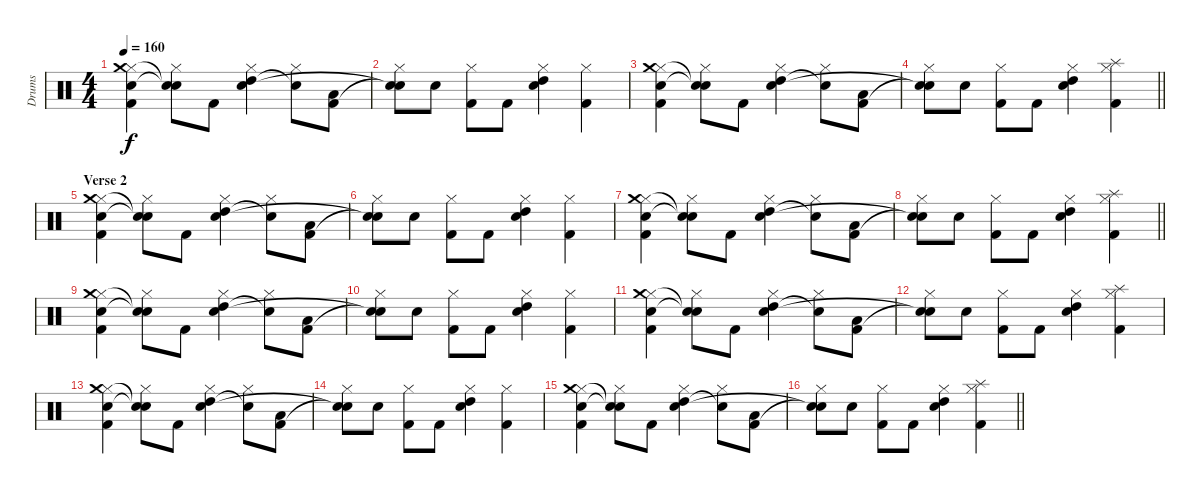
\track ("Drums" "Drums") {instrument percussion}
\staff {score}
\articulation defaults
\ts (4 4)
\tempo 160
\clef neutral
\ks c
("Hi-Hat (closed)" "Crash medium (hit)" "Snare (hit) 2" "Kick (hit) 2").4{dy f} ("Hi-Hat (closed)" "Snare (hit)"{t} "Snare (hit)"{t}).8 "Kick (hit) 2".8 ("Hi-Hat (closed)" "High Tom (hit)" "Snare (hit) 2").4 ("Hi-Hat (closed)" "Snare (hit)"{t}).8 ("Low Floor Tom (hit)" "Kick (hit) 2").8 |
("Hi-Hat (closed)" "Snare (hit)"{t} "Snare (hit)"{t}).8 "Snare (hit) 2".8 ("Hi-Hat (closed)" "Kick (hit) 2").8 "Kick (hit) 2".8 ("Hi-Hat (closed)" "High Tom (hit)" "Snare (hit) 2").4 ("Hi-Hat (closed)" "Kick (hit) 2").4 |
("Hi-Hat (closed)" "Crash medium (hit)" "Snare (hit) 2" "Kick (hit) 2").4 ("Hi-Hat (closed)" "Snare (hit)"{t} "Snare (hit)"{t}).8 "Kick (hit) 2".8 ("Hi-Hat (closed)" "High Tom (hit)" "Snare (hit) 2").4 ("Hi-Hat (closed)" "Snare (hit)"{t}).8 ("Low Floor Tom (hit)" "Kick (hit) 2").8 |
\barLineRight lightlight
("Hi-Hat (closed)" "Snare (hit)"{t} "Snare (hit)"{t}).8 "Snare (hit) 2".8 ("Hi-Hat (closed)" "Kick (hit) 2").8 "Kick (hit) 2".8 ("Hi-Hat (closed)" "High Tom (hit)" "Snare (hit) 2").4 ("Hi-Hat (closed)" "Splash (hit)" "Kick (hit) 2").4 |
\section ("" "Verse 2")
("Hi-Hat (closed)" "Crash medium (hit)" "Snare (hit) 2" "Kick (hit) 2").4 ("Hi-Hat (closed)" "Snare (hit)"{t} "Snare (hit)"{t}).8 "Kick (hit) 2".8 ("Hi-Hat (closed)" "High Tom (hit)" "Snare (hit) 2").4 ("Hi-Hat (closed)" "Snare (hit)"{t}).8 ("Low Floor Tom (hit)" "Kick (hit) 2").8 |
("Hi-Hat (closed)" "Snare (hit)"{t} "Snare (hit)"{t}).8 "Snare (hit) 2".8 ("Hi-Hat (closed)" "Kick (hit) 2").8 "Kick (hit) 2".8 ("Hi-Hat (closed)" "High Tom (hit)" "Snare (hit) 2").4 ("Hi-Hat (closed)" "Kick (hit) 2").4 |
("Hi-Hat (closed)" "Crash medium (hit)" "Snare (hit) 2" "Kick (hit) 2").4 ("Hi-Hat (closed)" "Snare (hit)"{t} "Snare (hit)"{t}).8 "Kick (hit) 2".8 ("Hi-Hat (closed)" "High Tom (hit)" "Snare (hit) 2").4 ("Hi-Hat (closed)" "Snare (hit)"{t}).8 ("Low Floor Tom (hit)" "Kick (hit) 2").8 |
\barLineRight lightlight
("Hi-Hat (closed)" "Snare (hit)"{t} "Snare (hit)"{t}).8 "Snare (hit) 2".8 ("Hi-Hat (closed)" "Kick (hit) 2").8 "Kick (hit) 2".8 ("Hi-Hat (closed)" "High Tom (hit)" "Snare (hit) 2").4 ("Hi-Hat (closed)" "Splash (hit)" "Kick (hit) 2").4 |
("Hi-Hat (closed)" "Crash medium (hit)" "Snare (hit) 2" "Kick (hit) 2").4 ("Hi-Hat (closed)" "Snare (hit)"{t} "Snare (hit)"{t}).8 "Kick (hit) 2".8 ("Hi-Hat (closed)" "High Tom (hit)" "Snare (hit) 2").4 ("Hi-Hat (closed)" "Snare (hit)"{t}).8 ("Low Floor Tom (hit)" "Kick (hit) 2").8 |
("Hi-Hat (closed)" "Snare (hit)"{t} "Snare (hit)"{t}).8 "Snare (hit) 2".8 ("Hi-Hat (closed)" "Kick (hit) 2").8 "Kick (hit) 2".8 ("Hi-Hat (closed)" "High Tom (hit)" "Snare (hit) 2").4 ("Hi-Hat (closed)" "Kick (hit) 2").4 |
("Hi-Hat (closed)" "Crash medium (hit)" "Snare (hit) 2" "Kick (hit) 2").4 ("Hi-Hat (closed)" "Snare (hit)"{t} "Snare (hit)"{t}).8 "Kick (hit) 2".8 ("Hi-Hat (closed)" "High Tom (hit)" "Snare (hit) 2").4 ("Hi-Hat (closed)" "Snare (hit)"{t}).8 ("Low Floor Tom (hit)" "Kick (hit) 2").8 |
("Hi-Hat (closed)" "Snare (hit)"{t} "Snare (hit)"{t}).8 "Snare (hit) 2".8 ("Hi-Hat (closed)" "Kick (hit) 2").8 "Kick (hit) 2".8 ("Hi-Hat (closed)" "High Tom (hit)" "Snare (hit) 2").4 ("Hi-Hat (closed)" "Splash (hit)" "Kick (hit) 2").4 |
("Hi-Hat (closed)" "Crash medium (hit)" "Snare (hit) 2" "Kick (hit) 2").4 ("Hi-Hat (closed)" "Snare (hit)"{t} "Snare (hit)"{t}).8 "Kick (hit) 2".8 ("Hi-Hat (closed)" "High Tom (hit)" "Snare (hit) 2").4 ("Hi-Hat (closed)" "Snare (hit)"{t}).8 ("Low Floor Tom (hit)" "Kick (hit) 2").8 |
("Hi-Hat (closed)" "Snare (hit)"{t} "Snare (hit)"{t}).8 "Snare (hit) 2".8 ("Hi-Hat (closed)" "Kick (hit) 2").8 "Kick (hit) 2".8 ("Hi-Hat (closed)" "High Tom (hit)" "Snare (hit) 2").4 ("Hi-Hat (closed)" "Kick (hit) 2").4 |
("Hi-Hat (closed)" "Crash medium (hit)" "Snare (hit) 2" "Kick (hit) 2").4 ("Hi-Hat (closed)" "Snare (hit)"{t} "Snare (hit)"{t}).8 "Kick (hit) 2".8 ("Hi-Hat (closed)" "High Tom (hit)" "Snare (hit) 2").4 ("Hi-Hat (closed)" "Snare (hit)"{t}).8 ("Low Floor Tom (hit)" "Kick (hit) 2").8 |
\barLineRight lightlight
("Hi-Hat (closed)" "Snare (hit)"{t} "Snare (hit)"{t}).8 "Snare (hit) 2".8 ("Hi-Hat (closed)" "Kick (hit) 2").8 "Kick (hit) 2".8 ("Hi-Hat (closed)" "High Tom (hit)" "Snare (hit) 2").4 ("Hi-Hat (closed)" "Splash (hit)" "Kick (hit) 2").4
